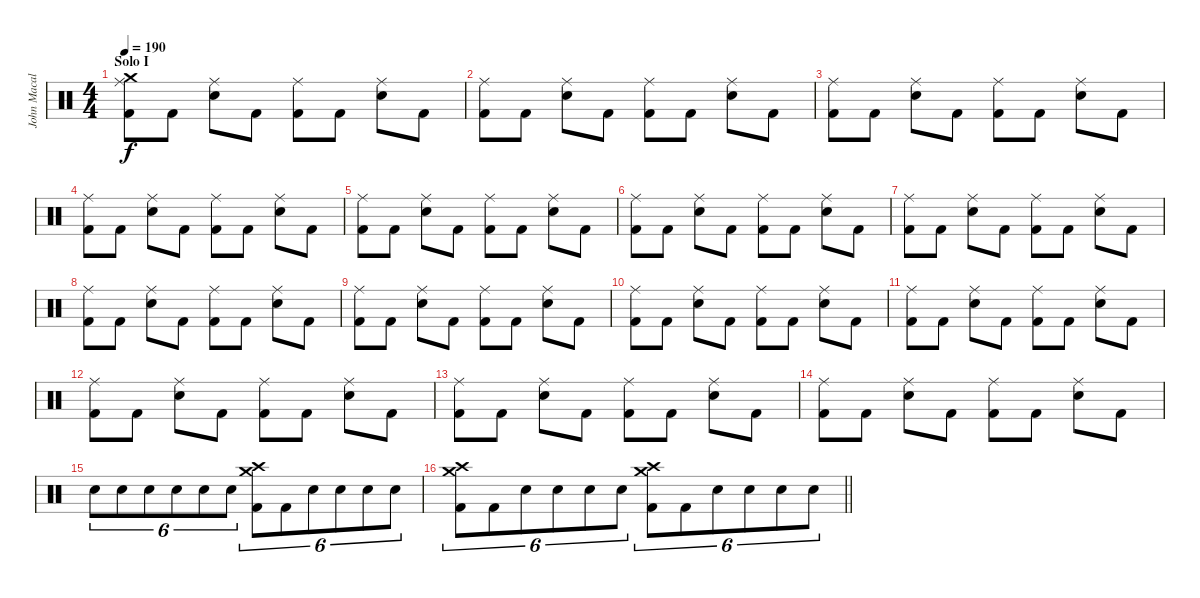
\track ("John Macaluso" "John Macal") {instrument percussion}
\staff {score}
\articulation defaults
\ts (4 4)
\section ("" "Solo I")
\tempo 190
\clef neutral
\ks c
("Crash medium (hit)" "Ride (middle)" "Kick (hit) 2").8{dy f} "Kick (hit) 2".8 ("Ride (middle)" "Snare (hit) 2").8 "Kick (hit) 2".8 ("Ride (middle)" "Kick (hit) 2").8 "Kick (hit) 2".8 ("Ride (middle)" "Snare (hit) 2").8 "Kick (hit) 2".8 |
("Ride (middle)" "Kick (hit) 2").8 "Kick (hit) 2".8 ("Ride (middle)" "Snare (hit) 2").8 "Kick (hit) 2".8 ("Ride (middle)" "Kick (hit) 2").8 "Kick (hit) 2".8 ("Ride (middle)" "Snare (hit) 2").8 "Kick (hit) 2".8 |
("Ride (middle)" "Kick (hit) 2").8 "Kick (hit) 2".8 ("Ride (middle)" "Snare (hit) 2").8 "Kick (hit) 2".8 ("Ride (middle)" "Kick (hit) 2").8 "Kick (hit) 2".8 ("Ride (middle)" "Snare (hit) 2").8 "Kick (hit) 2".8 |
("Ride (middle)" "Kick (hit) 2").8 "Kick (hit) 2".8 ("Ride (middle)" "Snare (hit) 2").8 "Kick (hit) 2".8 ("Ride (middle)" "Kick (hit) 2").8 "Kick (hit) 2".8 ("Ride (middle)" "Snare (hit) 2").8 "Kick (hit) 2".8 |
("Ride (middle)" "Kick (hit) 2").8 "Kick (hit) 2".8 ("Ride (middle)" "Snare (hit) 2").8 "Kick (hit) 2".8 ("Ride (middle)" "Kick (hit) 2").8 "Kick (hit) 2".8 ("Ride (middle)" "Snare (hit) 2").8 "Kick (hit) 2".8 |
("Ride (middle)" "Kick (hit) 2").8 "Kick (hit) 2".8 ("Ride (middle)" "Snare (hit) 2").8 "Kick (hit) 2".8 ("Ride (middle)" "Kick (hit) 2").8 "Kick (hit) 2".8 ("Ride (middle)" "Snare (hit) 2").8 "Kick (hit) 2".8 |
("Ride (middle)" "Kick (hit) 2").8 "Kick (hit) 2".8 ("Ride (middle)" "Snare (hit) 2").8 "Kick (hit) 2".8 ("Ride (middle)" "Kick (hit) 2").8 "Kick (hit) 2".8 ("Ride (middle)" "Snare (hit) 2").8 "Kick (hit) 2".8 |
("Ride (middle)" "Kick (hit) 2").8 "Kick (hit) 2".8 ("Ride (middle)" "Snare (hit) 2").8 "Kick (hit) 2".8 ("Ride (middle)" "Kick (hit) 2").8 "Kick (hit) 2".8 ("Ride (middle)" "Snare (hit) 2").8 "Kick (hit) 2".8 |
("Ride (middle)" "Kick (hit) 2").8 "Kick (hit) 2".8 ("Ride (middle)" "Snare (hit) 2").8 "Kick (hit) 2".8 ("Ride (middle)" "Kick (hit) 2").8 "Kick (hit) 2".8 ("Ride (middle)" "Snare (hit) 2").8 "Kick (hit) 2".8 |
("Ride (middle)" "Kick (hit) 2").8 "Kick (hit) 2".8 ("Ride (middle)" "Snare (hit) 2").8 "Kick (hit) 2".8 ("Ride (middle)" "Kick (hit) 2").8 "Kick (hit) 2".8 ("Ride (middle)" "Snare (hit) 2").8 "Kick (hit) 2".8 |
("Ride (middle)" "Kick (hit) 2").8 "Kick (hit) 2".8 ("Ride (middle)" "Snare (hit) 2").8 "Kick (hit) 2".8 ("Ride (middle)" "Kick (hit) 2").8 "Kick (hit) 2".8 ("Ride (middle)" "Snare (hit) 2").8 "Kick (hit) 2".8 |
("Ride (middle)" "Kick (hit) 2").8 "Kick (hit) 2".8 ("Ride (middle)" "Snare (hit) 2").8 "Kick (hit) 2".8 ("Ride (middle)" "Kick (hit) 2").8 "Kick (hit) 2".8 ("Ride (middle)" "Snare (hit) 2").8 "Kick (hit) 2".8 |
("Ride (middle)" "Kick (hit) 2").8 "Kick (hit) 2".8 ("Ride (middle)" "Snare (hit) 2").8 "Kick (hit) 2".8 ("Ride (middle)" "Kick (hit) 2").8 "Kick (hit) 2".8 ("Ride (middle)" "Snare (hit) 2").8 "Kick (hit) 2".8 |
("Ride (middle)" "Kick (hit) 2").8 "Kick (hit) 2".8 ("Ride (middle)" "Snare (hit) 2").8 "Kick (hit) 2".8 ("Ride (middle)" "Kick (hit) 2").8 "Kick (hit) 2".8 ("Ride (middle)" "Snare (hit) 2").8 "Kick (hit) 2".8 |
"Snare (hit) 2".8{tu (6 4)} "Snare (hit) 2".8{tu (6 4)} "Snare (hit) 2".8{tu (6 4)} "Snare (hit) 2".8{tu (6 4)} "Snare (hit) 2".8{tu (6 4)} "Snare (hit) 2".8{tu (6 4)} ("Crash medium (hit)" "Crash high (hit)" "Kick (hit) 2").8{tu (6 4)} "Kick (hit) 2".8{tu (6 4)} "Snare (hit) 2".8{tu (6 4)} "Snare (hit) 2".8{tu (6 4)} "Snare (hit) 2".8{tu (6 4)} "Snare (hit) 2".8{tu (6 4)} |
\barLineRight lightlight
("Crash high (hit)" "Crash medium (hit)" "Kick (hit) 2").8{tu (6 4)} "Kick (hit) 2".8{tu (6 4)} "Snare (hit) 2".8{tu (6 4)} "Snare (hit) 2".8{tu (6 4)} "Snare (hit) 2".8{tu (6 4)} "Snare (hit) 2".8{tu (6 4)} ("Crash medium (hit)" "Crash high (hit)" "Kick (hit) 2").8{tu (6 4)} "Kick (hit) 2".8{tu (6 4)} "Snare (hit) 2".8{tu (6 4)} "Snare (hit) 2".8{tu (6 4)} "Snare (hit) 2".8{tu (6 4)} "Snare (hit) 2".8{tu (6 4)}
